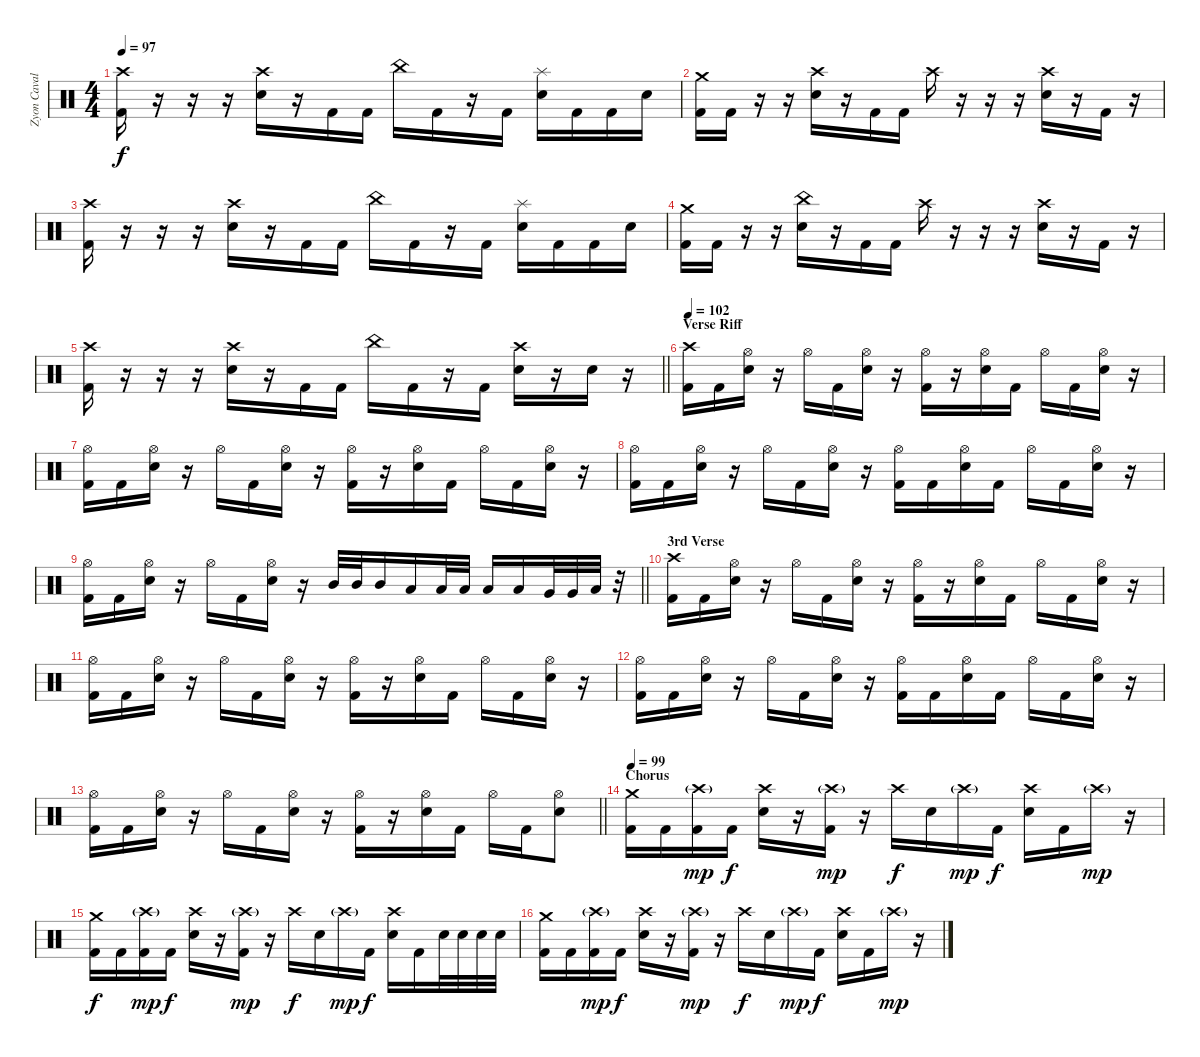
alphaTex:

\track ("Zyon Cavalera" "Zyon Caval") {instrument percussion}
\staff {score}
\articulation defaults
\ts (4 4)
\tempo 97
\clef neutral
\ks c
("Crash high (hit)" "Kick (hit) 2").16{dy f} r.16 r.16 r.16 ("Crash high (hit)" "Snare (hit) 2").16 r.16 "Kick (hit) 2".16 "Kick (hit) 2".16 "China (hit)".16 "Kick (hit) 2".16 r.16 "Kick (hit) 2".16 ("Splash (hit)" "Snare (hit) 2").16 "Kick (hit) 2".16 "Kick (hit) 2".16 "Snare (hit) 2".16 |
("Crash medium (hit)" "Kick (hit) 2").16 "Kick (hit) 2".16 r.16 r.16 ("Crash high (hit)" "Snare (hit) 2").16 r.16 "Kick (hit) 2".16 "Kick (hit) 2".16 "Crash high (hit)".16 r.16 r.16 r.16 ("Crash high (hit)" "Snare (hit) 2").16 r.16 "Kick (hit) 2".16 r.16 |
("Crash high (hit)" "Kick (hit) 2").16 r.16 r.16 r.16 ("Crash high (hit)" "Snare (hit) 2").16 r.16 "Kick (hit) 2".16 "Kick (hit) 2".16 "China (hit)".16 "Kick (hit) 2".16 r.16 "Kick (hit) 2".16 ("Splash (hit)" "Snare (hit) 2").16 "Kick (hit) 2".16 "Kick (hit) 2".16 "Snare (hit) 2".16 |
("Crash medium (hit)" "Kick (hit) 2").16 "Kick (hit) 2".16 r.16 r.16 ("China (hit)" "Snare (hit) 2").16 r.16 "Kick (hit) 2".16 "Kick (hit) 2".16 "Crash high (hit)".16 r.16 r.16 r.16 ("Crash high (hit)" "Snare (hit) 2").16 r.16 "Kick (hit) 2".16 r.16 |
\barLineRight lightlight
("Crash high (hit)" "Kick (hit) 2").16 r.16 r.16 r.16 ("Crash high (hit)" "Snare (hit) 2").16 r.16 "Kick (hit) 2".16 "Kick (hit) 2".16 "China (hit)".16 "Kick (hit) 2".16 r.16 "Kick (hit) 2".16 ("Crash high (hit)" "Snare (hit) 2").16 r.16 "Snare (hit) 2".16 r.16 |
\section ("" "Verse Riff ")
\tempo 102
("Crash high (hit)" "Kick (hit) 2").16 "Kick (hit) 2".16 ("Hi-Hat (open)" "Snare (hit) 2").16 r.16 "Hi-Hat (open)".16 "Kick (hit) 2".16 ("Hi-Hat (open)" "Snare (hit) 2").16 r.16 ("Hi-Hat (open)" "Kick (hit) 2").16 r.16 ("Hi-Hat (open)" "Snare (hit) 2").16 "Kick (hit) 2".16 "Hi-Hat (open)".16 "Kick (hit) 2".16 ("Hi-Hat (open)" "Snare (hit) 2").16 r.16 |
("Hi-Hat (open)" "Kick (hit) 2").16 "Kick (hit) 2".16 ("Hi-Hat (open)" "Snare (hit) 2").16 r.16 "Hi-Hat (open)".16 "Kick (hit) 2".16 ("Hi-Hat (open)" "Snare (hit) 2").16 r.16 ("Hi-Hat (open)" "Kick (hit) 2").16 r.16 ("Hi-Hat (open)" "Snare (hit) 2").16 "Kick (hit) 2".16 "Hi-Hat (open)".16 "Kick (hit) 2".16 ("Hi-Hat (open)" "Snare (hit) 2").16 r.16 |
("Hi-Hat (open)" "Kick (hit) 2").16 "Kick (hit) 2".16 ("Hi-Hat (open)" "Snare (hit) 2").16 r.16 "Hi-Hat (open)".16 "Kick (hit) 2".16 ("Hi-Hat (open)" "Snare (hit) 2").16 r.16 ("Hi-Hat (open)" "Kick (hit) 2").16 "Kick (hit) 2".16 ("Hi-Hat (open)" "Snare (hit) 2").16 "Kick (hit) 2".16 "Hi-Hat (open)".16 "Kick (hit) 2".16 ("Hi-Hat (open)" "Snare (hit) 2").16 r.16 |
\barLineRight lightlight
("Hi-Hat (open)" "Kick (hit) 2").16 "Kick (hit) 2".16 ("Hi-Hat (open)" "Snare (hit) 2").16 r.16 "Hi-Hat (open)".16 "Kick (hit) 2".16 ("Hi-Hat (open)" "Snare (hit) 2").16 r.16 "Mid Tom (hit)".32 "Mid Tom (hit)".32 "Mid Tom (hit)".16 "Low Tom (hit)".16 "Low Tom (hit)".32 "Low Tom (hit)".32 "Low Tom (hit)".16 "Low Tom (hit)".16 "Very Low Tom (hit)".32 "Very Low Tom (hit)".32 "Low Floor Tom (hit)".32 r.32 |
\section ("" "3rd Verse")
("Crash high (hit)" "Kick (hit) 2").16 "Kick (hit) 2".16 ("Hi-Hat (open)" "Snare (hit) 2").16 r.16 "Hi-Hat (open)".16 "Kick (hit) 2".16 ("Hi-Hat (open)" "Snare (hit) 2").16 r.16 ("Hi-Hat (open)" "Kick (hit) 2").16 r.16 ("Hi-Hat (open)" "Snare (hit) 2").16 "Kick (hit) 2".16 "Hi-Hat (open)".16 "Kick (hit) 2".16 ("Hi-Hat (open)" "Snare (hit) 2").16 r.16 |
("Hi-Hat (open)" "Kick (hit) 2").16 "Kick (hit) 2".16 ("Hi-Hat (open)" "Snare (hit) 2").16 r.16 "Hi-Hat (open)".16 "Kick (hit) 2".16 ("Hi-Hat (open)" "Snare (hit) 2").16 r.16 ("Hi-Hat (open)" "Kick (hit) 2").16 r.16 ("Hi-Hat (open)" "Snare (hit) 2").16 "Kick (hit) 2".16 "Hi-Hat (open)".16 "Kick (hit) 2".16 ("Hi-Hat (open)" "Snare (hit) 2").16 r.16 |
("Hi-Hat (open)" "Kick (hit) 2").16 "Kick (hit) 2".16 ("Hi-Hat (open)" "Snare (hit) 2").16 r.16 "Hi-Hat (open)".16 "Kick (hit) 2".16 ("Hi-Hat (open)" "Snare (hit) 2").16 r.16 ("Hi-Hat (open)" "Kick (hit) 2").16 "Kick (hit) 2".16 ("Hi-Hat (open)" "Snare (hit) 2").16 "Kick (hit) 2".16 "Hi-Hat (open)".16 "Kick (hit) 2".16 ("Hi-Hat (open)" "Snare (hit) 2").16 r.16 |
\barLineRight lightlight
("Hi-Hat (open)" "Kick (hit) 2").16 "Kick (hit) 2".16 ("Hi-Hat (open)" "Snare (hit) 2").16 r.16 "Hi-Hat (open)".16 "Kick (hit) 2".16 ("Hi-Hat (open)" "Snare (hit) 2").16 r.16 ("Hi-Hat (open)" "Kick (hit) 2").16 r.16 ("Hi-Hat (open)" "Snare (hit) 2").16 "Kick (hit) 2".16 "Hi-Hat (open)".16 "Kick (hit) 2".16 ("Hi-Hat (open)" "Snare (hit) 2").8 |
\section ("" "Chorus")
\tempo 99
("Crash medium (hit)" "Kick (hit) 2").16 "Kick (hit) 2".16 ("Crash high (hit)"{g} "Kick (hit) 2").16{dy mp} "Kick (hit) 2".16{dy f} ("Crash high (hit)" "Snare (hit) 2").16 r.16 ("Crash high (hit)"{g} "Kick (hit) 2").16{dy mp} r.16 "Crash high (hit)".16{dy f} "Snare (hit) 2".16 "Crash high (hit)"{g}.16{dy mp} "Kick (hit) 2".16{dy f} ("Crash high (hit)" "Snare (hit) 2").16 "Kick (hit) 2".16 "Crash high (hit)"{g}.16{dy mp} r.16 |
("Crash medium (hit)" "Kick (hit) 2").16{dy f} "Kick (hit) 2".16 ("Crash high (hit)"{g} "Kick (hit) 2").16{dy mp} "Kick (hit) 2".16{dy f} ("Crash high (hit)" "Snare (hit) 2").16 r.16 ("Crash high (hit)"{g} "Kick (hit) 2").16{dy mp} r.16 "Crash high (hit)".16{dy f} "Snare (hit) 2".16 "Crash high (hit)"{g}.16{dy mp} "Kick (hit) 2".16{dy f} ("Crash high (hit)" "Snare (hit) 2").16 "Kick (hit) 2".16 "Snare (hit) 2".32 "Snare (hit) 2".32 "Snare (hit) 2".32 "Snare (hit) 2".32 |
("Crash medium (hit)" "Kick (hit) 2").16 "Kick (hit) 2".16 ("Crash high (hit)"{g} "Kick (hit) 2").16{dy mp} "Kick (hit) 2".16{dy f} ("Crash high (hit)" "Snare (hit) 2").16 r.16 ("Crash high (hit)"{g} "Kick (hit) 2").16{dy mp} r.16 "Crash high (hit)".16{dy f} "Snare (hit) 2".16 "Crash high (hit)"{g}.16{dy mp} "Kick (hit) 2".16{dy f} ("Crash high (hit)" "Snare (hit) 2").16 "Kick (hit) 2".16 "Crash high (hit)"{g}.16{dy mp} r.16
